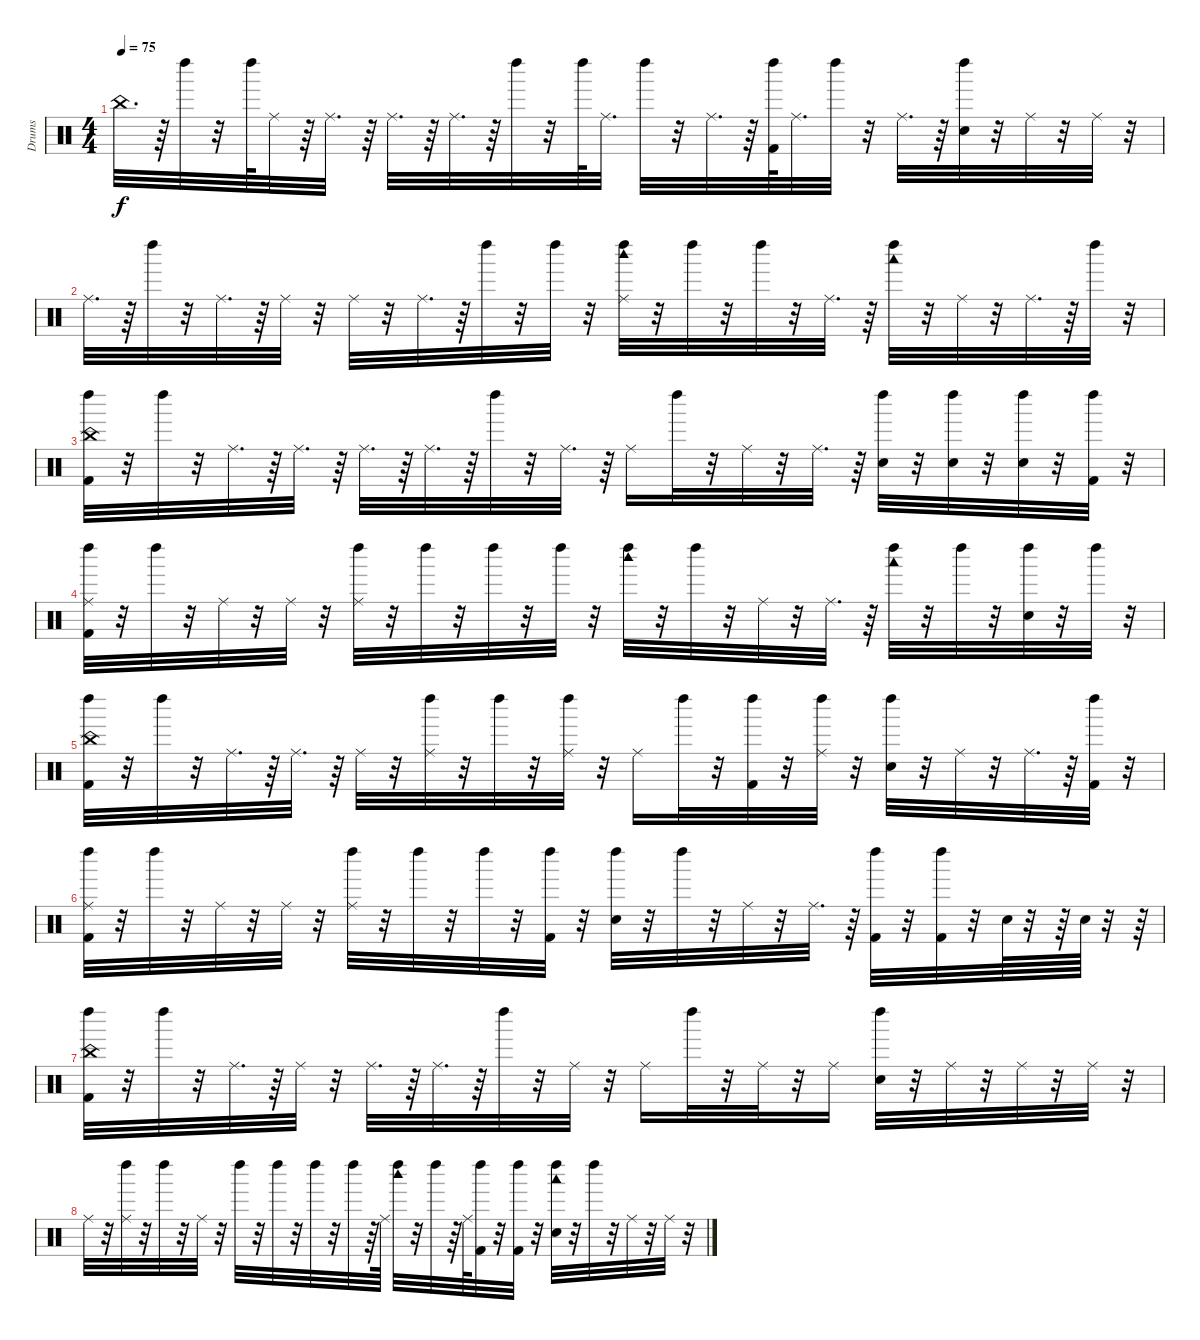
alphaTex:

\track ("Drums" "Drums") {instrument percussion}
\staff {score}
\articulation defaults
\ts (4 4)
\tempo 75
\clef neutral
\ks c "China (hit)".32{d dy f}
r.64 "Left Maraca (hit)".32 r.32 "Left Maraca (hit)".64 "Ride (middle)".32 r.64 "Ride (middle)".32{d} r.64 "Ride (middle)".32{d} r.64 "Ride (middle)".32{d} r.64 "Left Maraca (hit)".32 r.32 "Left Maraca (hit)".64 "Ride (middle)".32{d} "Left Maraca (hit)".32 r.32 "Ride (middle)".32{d} r.64 ("Kick (hit) 2" "Left Maraca (hit)").64 "Ride (middle)".32{d} "Left Maraca (hit)".32 r.32 "Ride (middle)".32{d} r.64 ("Snare (hit) 2" "Left Maraca (hit)").32 r.32 "Ride (middle)".32 r.32 "Ride (middle)".32 r.32 |
"Ride (middle)".32{d} r.64 "Left Maraca (hit)".32 r.32 "Ride (middle)".32{d} r.64 "Ride (middle)".32 r.32 "Ride (middle)".32 r.32 "Ride (middle)".32{d} r.64 "Left Maraca (hit)".32 r.32 "Left Maraca (hit)".32 r.32 ("Ride (middle)" "Woodblock high (hit)" "Left Maraca (hit)").32 r.32 "Left Maraca (hit)".32 r.32 "Left Maraca (hit)".32 r.32 "Ride (middle)".32{d} r.64 ("Woodblock low (hit)" "Left Maraca (hit)").32 r.32 "Ride (middle)".32 r.32 "Ride (middle)".32{d} r.64 "Left Maraca (hit)".32 r.32 |
("China (hit)" "Kick (hit) 2" "Left Maraca (hit)").32 r.32 "Left Maraca (hit)".32 r.32 "Ride (middle)".32{d} r.64 "Ride (middle)".32{d} r.64 "Ride (middle)".32{d} r.64 "Ride (middle)".32{d} r.64 "Left Maraca (hit)".32 r.32 "Ride (middle)".32{d} r.64 "Ride (middle)".16 "Left Maraca (hit)".32 r.32 "Ride (middle)".32 r.32 "Ride (middle)".32{d} r.64 ("Snare (hit) 2" "Left Maraca (hit)").32 r.32 ("Snare (hit) 2" "Left Maraca (hit)").32 r.32 ("Snare (hit) 2" "Left Maraca (hit)").32 r.32 ("Kick (hit) 2" "Left Maraca (hit)").32 r.32 |
("Ride (middle)" "Kick (hit) 2" "Left Maraca (hit)").32 r.32 "Left Maraca (hit)".32 r.32 "Ride (middle)".32 r.32 "Ride (middle)".32 r.32 ("Ride (middle)" "Left Maraca (hit)").32 r.32 "Left Maraca (hit)".32 r.32 "Left Maraca (hit)".32 r.32 "Left Maraca (hit)".32 r.32 ("Woodblock high (hit)" "Left Maraca (hit)").32 r.32 "Left Maraca (hit)".32 r.32 "Ride (middle)".32 r.32 "Ride (middle)".32{d} r.64 ("Woodblock low (hit)" "Left Maraca (hit)").32 r.32 "Left Maraca (hit)".32 r.32 ("Hand Clap (hit)" "Left Maraca (hit)").32 r.32 "Left Maraca (hit)".32 r.32 |
("China (hit)" "Kick (hit) 2" "Left Maraca (hit)").32 r.32 "Left Maraca (hit)".32 r.32 "Ride (middle)".32{d} r.64 "Ride (middle)".32{d} r.64 "Ride (middle)".32 r.32 ("Ride (middle)" "Left Maraca (hit)").32 r.32 "Left Maraca (hit)".32 r.32 ("Ride (middle)" "Left Maraca (hit)").32 r.32 "Ride (middle)".16 "Left Maraca (hit)".32 r.32 ("Kick (hit) 2" "Left Maraca (hit)").32 r.32 ("Ride (middle)" "Left Maraca (hit)").32 r.32 ("Snare (hit) 2" "Left Maraca (hit)").32 r.32 "Ride (middle)".32 r.32 "Ride (middle)".32{d} r.64 ("Kick (hit) 2" "Left Maraca (hit)").32 r.32 |
("Ride (middle)" "Kick (hit) 2" "Left Maraca (hit)").32 r.32 "Left Maraca (hit)".32 r.32 "Ride (middle)".32 r.32 "Ride (middle)".32 r.32 ("Ride (middle)" "Left Maraca (hit)").32 r.32 "Left Maraca (hit)".32 r.32 "Left Maraca (hit)".32 r.32 ("Kick (hit) 2" "Left Maraca (hit)").32 r.32 ("Snare (hit) 2" "Left Maraca (hit)").32 r.32 "Left Maraca (hit)".32 r.32 "Ride (middle)".32 r.32 "Ride (middle)".32{d} r.64 ("Kick (hit) 2" "Left Maraca (hit)").32 r.32 ("Left Maraca (hit)" "Kick (hit) 2").32 r.32 "Snare (hit) 2".64 r.32 r.64 "Snare (hit) 2".64 r.32 r.64 |
("China (hit)" "Kick (hit) 2" "Left Maraca (hit)").32 r.32 "Left Maraca (hit)".32 r.32 "Ride (middle)".32{d} r.64 "Ride (middle)".32 r.32 "Ride (middle)".32{d} r.64 "Ride (middle)".32{d} r.64 "Left Maraca (hit)".32 r.32 "Ride (middle)".32 r.32 "Ride (middle)".16 "Left Maraca (hit)".32 r.32 "Ride (middle)".32 r.32 "Ride (middle)".16 ("Snare (hit) 2" "Left Maraca (hit)").32 r.32 "Ride (middle)".32 r.32 "Ride (middle)".32 r.32 "Ride (middle)".32 r.32 |
"Ride (middle)".32 r.32 ("Ride (middle)" "Left Maraca (hit)").32 r.32 "Left Maraca (hit)".32 r.32 "Ride (middle)".32 r.32 "Left Maraca (hit)".32 r.32 "Left Maraca (hit)".32 r.32 "Left Maraca (hit)".32 r.32 "Left Maraca (hit)".32 r.64 "Ride (middle)".64 ("Woodblock high (hit)" "Left Maraca (hit)").32 r.32 "Left Maraca (hit)".32 r.64 "Ride (middle)".64 ("Kick (hit) 2" "Left Maraca (hit)").32 r.32 ("Kick (hit) 2" "Left Maraca (hit)").32 r.32 ("Snare (hit) 2" "Left Maraca (hit)" "Woodblock low (hit)").32 r.32 "Left Maraca (hit)".32 r.32 "Ride (middle)".32 r.32 "Ride (middle)".32 r.32
